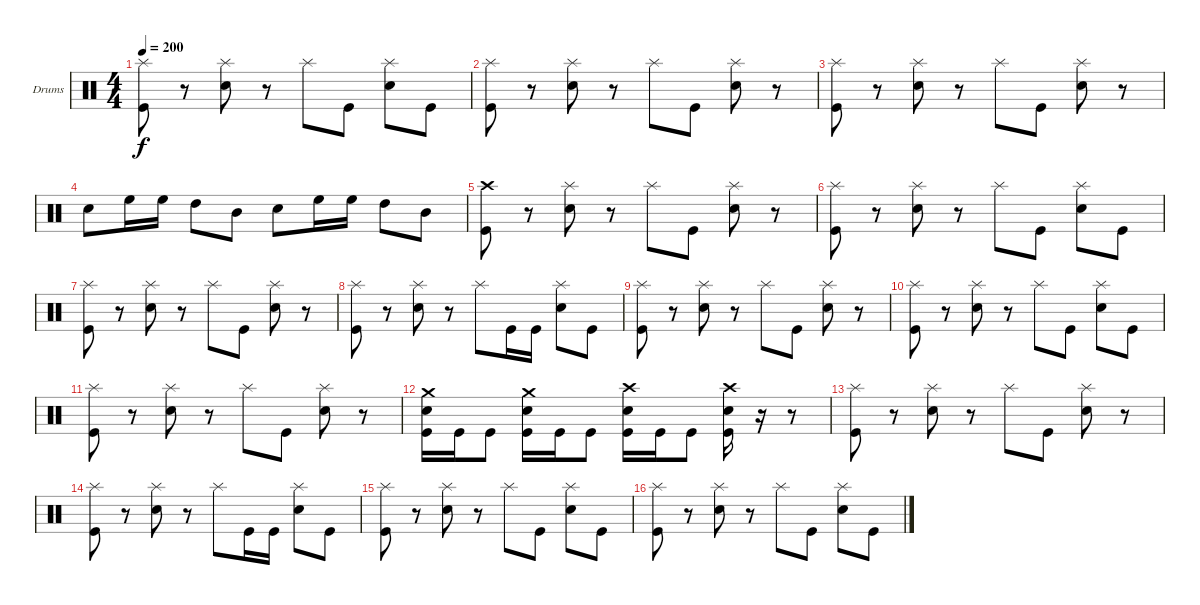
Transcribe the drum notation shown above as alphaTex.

\bracketExtendMode groupsimilarinstruments
\firstSystemTrackNameOrientation horizontal
\otherSystemsTrackNameOrientation horizontal
\track ("Drumkit" "Drums") {instrument percussion}
\staff {score}
\articulation defaults
\ts (4 4)
\tempo 200
\clef neutral
\ks c
("Splash (hit)" "Kick (hit)").8{dy f} r.8 ("Splash (hit)" "Snare (hit) 2").8 r.8 "Splash (hit)".8 "Kick (hit)".8 ("Splash (hit)" "Snare (hit) 2").8 "Kick (hit)".8 |
("Splash (hit)" "Kick (hit)").8 r.8 ("Splash (hit)" "Snare (hit) 2").8 r.8 "Splash (hit)".8 "Kick (hit)".8 ("Splash (hit)" "Snare (hit) 2").8 r.8 |
("Splash (hit)" "Kick (hit)").8 r.8 ("Splash (hit)" "Snare (hit) 2").8 r.8 "Splash (hit)".8 "Kick (hit)".8 ("Splash (hit)" "Snare (hit) 2").8 r.8 |
"Snare (hit) 2".8 "High Floor Tom (hit)".16 "High Floor Tom (hit)".16 "High Tom (hit)".8 "Mid Tom (hit)".8 "Snare (hit) 2".8 "High Floor Tom (hit)".16 "High Floor Tom (hit)".16 "High Tom (hit)".8 "Mid Tom (hit)".8 |
("Crash high (hit)" "Kick (hit)").8 r.8 ("Splash (hit)" "Snare (hit) 2").8 r.8 "Splash (hit)".8 "Kick (hit)".8 ("Splash (hit)" "Snare (hit) 2").8 r.8 |
("Splash (hit)" "Kick (hit)").8 r.8 ("Splash (hit)" "Snare (hit) 2").8 r.8 "Splash (hit)".8 "Kick (hit)".8 ("Splash (hit)" "Snare (hit) 2").8 "Kick (hit)".8 |
("Splash (hit)" "Kick (hit)").8 r.8 ("Splash (hit)" "Snare (hit) 2").8 r.8 "Splash (hit)".8 "Kick (hit)".8 ("Splash (hit)" "Snare (hit) 2").8 r.8 |
("Splash (hit)" "Kick (hit)").8 r.8 ("Splash (hit)" "Snare (hit) 2").8 r.8 "Splash (hit)".8 "Kick (hit)".16 "Kick (hit)".16 ("Splash (hit)" "Snare (hit) 2").8 "Kick (hit)".8 |
("Splash (hit)" "Kick (hit)").8 r.8 ("Splash (hit)" "Snare (hit) 2").8 r.8 "Splash (hit)".8 "Kick (hit)".8 ("Splash (hit)" "Snare (hit) 2").8 r.8 |
("Splash (hit)" "Kick (hit)").8 r.8 ("Splash (hit)" "Snare (hit) 2").8 r.8 "Splash (hit)".8 "Kick (hit)".8 ("Splash (hit)" "Snare (hit) 2").8 "Kick (hit)".8 |
("Splash (hit)" "Kick (hit)").8 r.8 ("Splash (hit)" "Snare (hit) 2").8 r.8 "Splash (hit)".8 "Kick (hit)".8 ("Splash (hit)" "Snare (hit) 2").8 r.8 |
("Crash medium (hit)" "Snare (hit) 2" "Kick (hit)").16 "Kick (hit)".16 "Kick (hit)".8 ("Crash medium (hit)" "Snare (hit) 2" "Kick (hit)").16 "Kick (hit)".16 "Kick (hit)".8 ("Crash high (hit)" "Snare (hit) 2" "Kick (hit)").16 "Kick (hit)".16 "Kick (hit)".8 ("Crash high (hit)" "Snare (hit) 2" "Kick (hit)").16 r.16 r.8 |
("Splash (hit)" "Kick (hit)").8 r.8 ("Splash (hit)" "Snare (hit) 2").8 r.8 "Splash (hit)".8 "Kick (hit)".8 ("Splash (hit)" "Snare (hit) 2").8 r.8 |
("Splash (hit)" "Kick (hit)").8 r.8 ("Splash (hit)" "Snare (hit) 2").8 r.8 "Splash (hit)".8 "Kick (hit)".16 "Kick (hit)".16 ("Splash (hit)" "Snare (hit) 2").8 "Kick (hit)".8 |
("Splash (hit)" "Kick (hit)").8 r.8 ("Splash (hit)" "Snare (hit) 2").8 r.8 "Splash (hit)".8 "Kick (hit)".8 ("Splash (hit)" "Snare (hit) 2").8 "Kick (hit)".8 |
("Splash (hit)" "Kick (hit)").8 r.8 ("Splash (hit)" "Snare (hit) 2").8 r.8 "Splash (hit)".8 "Kick (hit)".8 ("Splash (hit)" "Snare (hit) 2").8 "Kick (hit)".8
